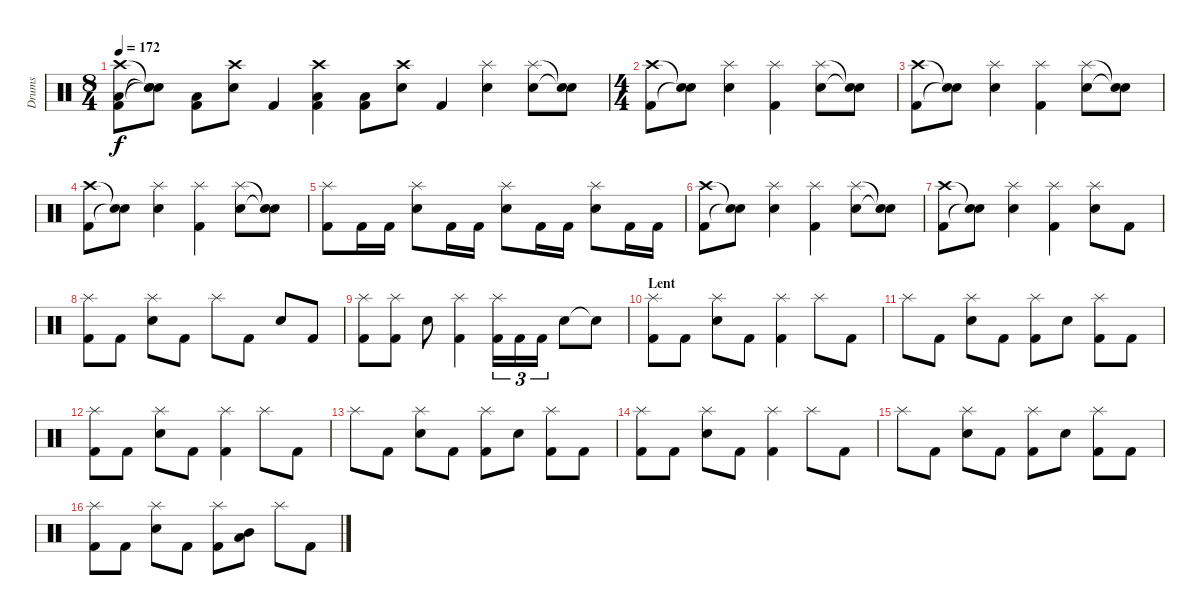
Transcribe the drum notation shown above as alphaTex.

\track ("Drums" "Drums") {instrument percussion}
\staff {score}
\articulation defaults
\ts (8 4)
\tempo 172
\clef neutral
\ks c
("Crash high (hit)" "Low Tom (hit)" "Kick (hit) 2").8{dy f} ("Snare (hit)"{t} "Snare (hit)"{t} "Snare (hit)"{t}).8 ("Low Tom (hit)" "Kick (hit) 2").8 ("Crash high (hit)" "Electric Snare (hit)").8 "Kick (hit) 2".4 ("Crash high (hit)" "Low Tom (hit)" "Kick (hit) 2").4 ("Low Tom (hit)" "Kick (hit) 2").8 ("Crash high (hit)" "Electric Snare (hit)").8 "Kick (hit) 2".4 ("Splash (hit)" "Electric Snare (hit)").4 ("Splash (hit)" "Electric Snare (hit)").8 ("Snare (hit)"{t} "Snare (hit)"{t}).8 |
\ts (4 4)
("Crash high (hit)" "Kick (hit) 2").8 ("Snare (hit)"{t} "Snare (hit)"{t}).8 ("Splash (hit)" "Electric Snare (hit)").4 ("Splash (hit)" "Kick (hit) 2").4 ("Splash (hit)" "Electric Snare (hit)").8 ("Snare (hit)"{t} "Snare (hit)"{t}).8 |
("Crash high (hit)" "Kick (hit) 2").8 ("Snare (hit)"{t} "Snare (hit)"{t}).8 ("Splash (hit)" "Electric Snare (hit)").4 ("Splash (hit)" "Kick (hit) 2").4 ("Splash (hit)" "Electric Snare (hit)").8 ("Snare (hit)"{t} "Snare (hit)"{t}).8 |
("Crash high (hit)" "Kick (hit) 2").8 ("Snare (hit)"{t} "Snare (hit)"{t}).8 ("Splash (hit)" "Electric Snare (hit)").4 ("Splash (hit)" "Kick (hit) 2").4 ("Splash (hit)" "Electric Snare (hit)").8 ("Snare (hit)"{t} "Snare (hit)"{t}).8 |
("Splash (hit)" "Kick (hit) 2").8 "Kick (hit) 2".16 "Kick (hit) 2".16 ("Splash (hit)" "Electric Snare (hit)").8 "Kick (hit) 2".16 "Kick (hit) 2".16 ("Splash (hit)" "Electric Snare (hit)").8 "Kick (hit) 2".16 "Kick (hit) 2".16 ("Splash (hit)" "Electric Snare (hit)").8 "Kick (hit) 2".16 "Kick (hit) 2".16 |
("Crash high (hit)" "Kick (hit) 2").8 ("Snare (hit)"{t} "Snare (hit)"{t}).8 ("Splash (hit)" "Electric Snare (hit)").4 ("Splash (hit)" "Kick (hit) 2").4 ("Splash (hit)" "Electric Snare (hit)").8 ("Snare (hit)"{t} "Snare (hit)"{t}).8 |
("Crash high (hit)" "Kick (hit) 2").8 ("Snare (hit)"{t} "Snare (hit)"{t}).8 ("Splash (hit)" "Electric Snare (hit)").4 ("Splash (hit)" "Kick (hit) 2").4 ("Splash (hit)" "Electric Snare (hit)").8 "Kick (hit) 2".8 |
("Splash (hit)" "Kick (hit) 2").8 "Kick (hit) 2".8 ("Splash (hit)" "Electric Snare (hit)").8 "Kick (hit) 2".8 "Splash (hit)".8 "Kick (hit) 2".8 "Electric Snare (hit)".8 "Kick (hit) 2".8 |
("Splash (hit)" "Kick (hit) 2").8 ("Splash (hit)" "Kick (hit) 2").8 "Electric Snare (hit)".8 ("Splash (hit)" "Kick (hit) 2").4 ("Splash (hit)" "Kick (hit) 2").16{tu (3 2)} "Kick (hit) 2".16{tu (3 2)} "Kick (hit) 2".16{tu (3 2)} "Electric Snare (hit)".8 "Snare (hit)"{t}.8 |
\section ("" "Lent")
("Splash (hit)" "Kick (hit) 2").8 "Kick (hit) 2".8 ("Splash (hit)" "Electric Snare (hit)").8 "Kick (hit) 2".8 ("Splash (hit)" "Kick (hit) 2").4 "Splash (hit)".8 "Kick (hit) 2".8 |
"Splash (hit)".8 "Kick (hit) 2".8 ("Splash (hit)" "Electric Snare (hit)").8 "Kick (hit) 2".8 ("Splash (hit)" "Kick (hit) 2").8 "Electric Snare (hit)".8 ("Splash (hit)" "Kick (hit) 2").8 "Kick (hit) 2".8 |
("Splash (hit)" "Kick (hit) 2").8 "Kick (hit) 2".8 ("Splash (hit)" "Electric Snare (hit)").8 "Kick (hit) 2".8 ("Splash (hit)" "Kick (hit) 2").4 "Splash (hit)".8 "Kick (hit) 2".8 |
"Splash (hit)".8 "Kick (hit) 2".8 ("Splash (hit)" "Electric Snare (hit)").8 "Kick (hit) 2".8 ("Splash (hit)" "Kick (hit) 2").8 "Electric Snare (hit)".8 ("Splash (hit)" "Kick (hit) 2").8 "Kick (hit) 2".8 |
("Splash (hit)" "Kick (hit) 2").8 "Kick (hit) 2".8 ("Splash (hit)" "Electric Snare (hit)").8 "Kick (hit) 2".8 ("Splash (hit)" "Kick (hit) 2").4 "Splash (hit)".8 "Kick (hit) 2".8 |
"Splash (hit)".8 "Kick (hit) 2".8 ("Splash (hit)" "Electric Snare (hit)").8 "Kick (hit) 2".8 ("Splash (hit)" "Kick (hit) 2").8 "Electric Snare (hit)".8 ("Splash (hit)" "Kick (hit) 2").8 "Kick (hit) 2".8 |
("Splash (hit)" "Kick (hit) 2").8 "Kick (hit) 2".8 ("Splash (hit)" "Electric Snare (hit)").8 "Kick (hit) 2".8 ("Splash (hit)" "Kick (hit) 2").8 ("Mid Tom (hit)" "Low Tom (hit)").8 "Splash (hit)".8 "Kick (hit) 2".8
